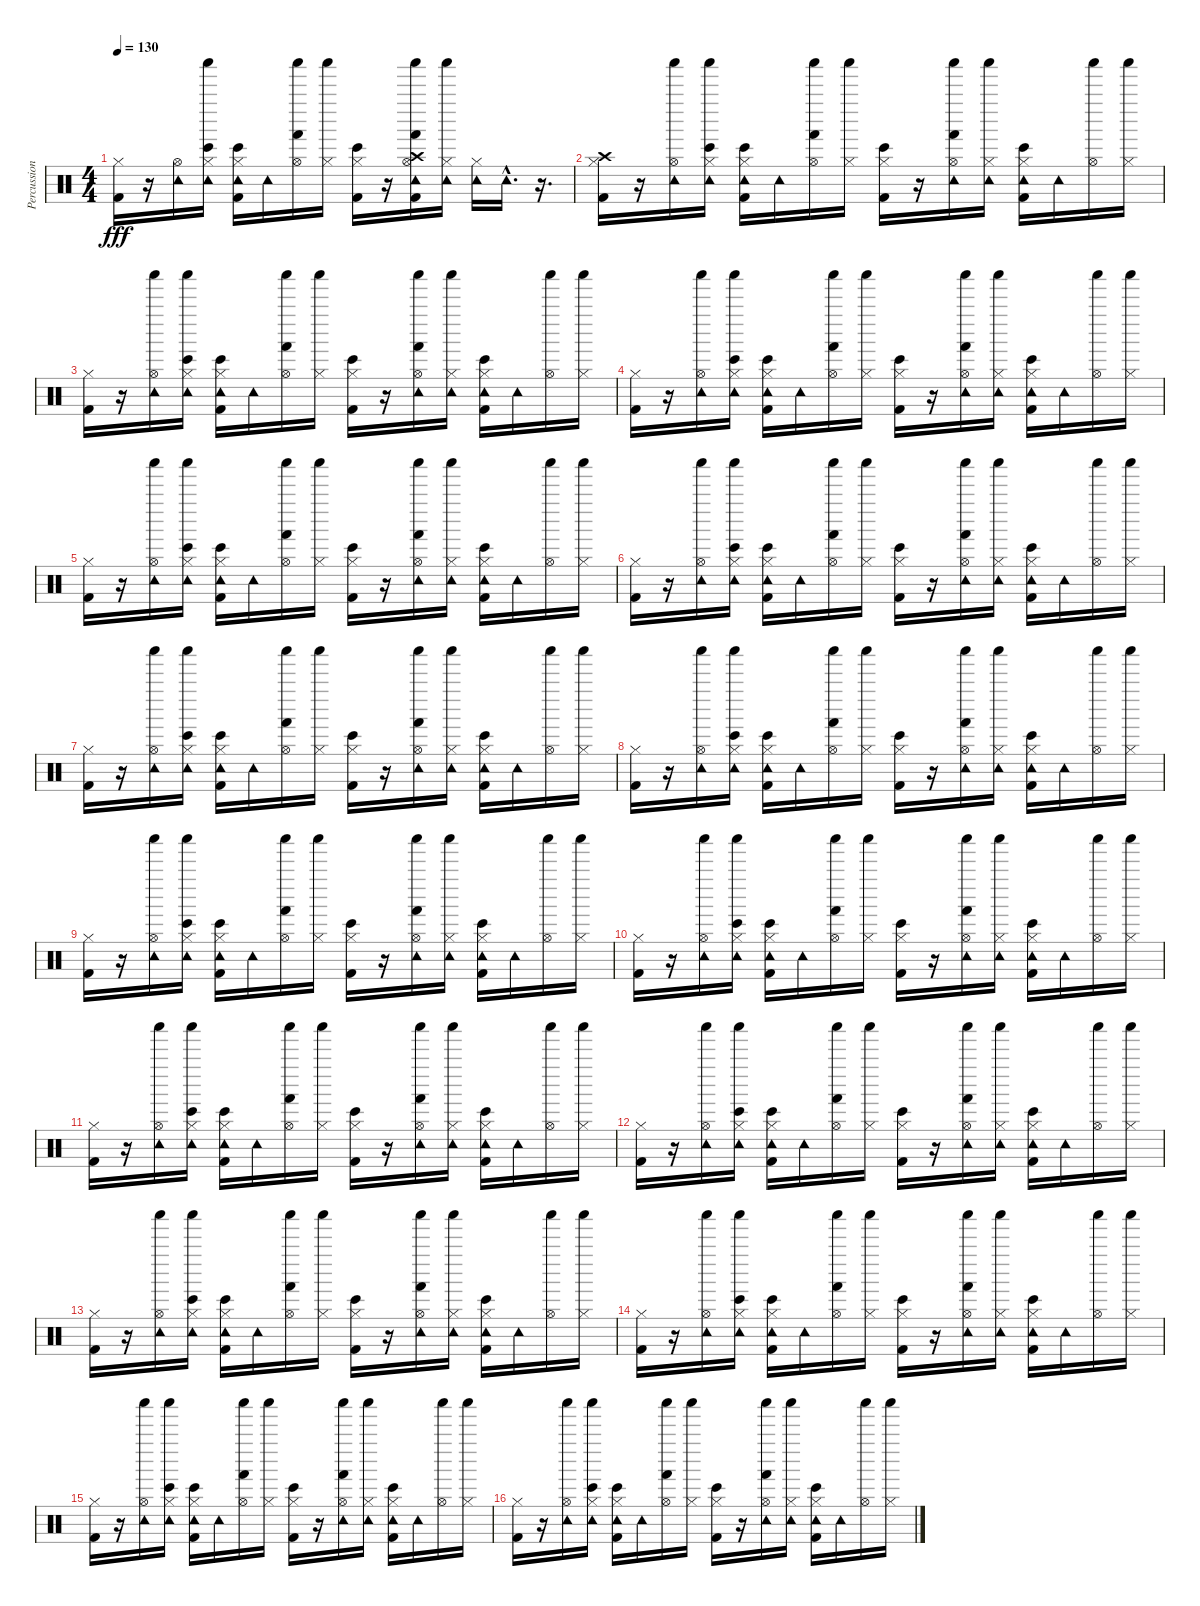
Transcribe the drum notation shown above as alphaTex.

\track ("Percussions" "Percussion") {instrument percussion}
\staff {score}
\articulation defaults
\ts (4 4)
\tempo 130
\clef neutral
\ks c
("Kick (hit) 2" "Hi-Hat (closed)").16{dy fff} r.16 ("Hi-Hat (open)" "Tambourine (hit)").16 ("Tambourine (hit)" "Shaker (hit)" "Bongo High (hit)" "Hi-Hat (closed)").16 ("Hi-Hat (closed)" "Kick (hit) 2" "Tambourine (hit)" "Bongo High (hit)").16 "Tambourine (hit)".16 ("Hi-Hat (open)" "Shaker (hit)" "Hand (hit)").16 ("Shaker (hit)" "Hi-Hat (closed)").16 ("Hi-Hat (closed)" "Kick (hit) 2" "Bongo High (hit)").16 r.16 ("Crash high (hit)" "Kick (hit) 2" "Hi-Hat (open)" "Tambourine (hit)" "Shaker (hit)" "Hand (hit)").16 ("Tambourine (hit)" "Shaker (hit)" "Hi-Hat (closed)").16 ("Hi-Hat (closed)" "Tambourine (hit)").16 "Tambourine (hit)"{hac}.16{d} r.16{d} |
("Crash high (hit)" "Kick (hit) 2" "Hi-Hat (closed)").16 r.16 ("Hi-Hat (open)" "Tambourine (hit)" "Shaker (hit)").16 ("Tambourine (hit)" "Shaker (hit)" "Bongo High (hit)" "Hi-Hat (closed)").16 ("Hi-Hat (closed)" "Kick (hit) 2" "Tambourine (hit)" "Bongo High (hit)").16 "Tambourine (hit)".16 ("Hi-Hat (open)" "Shaker (hit)" "Hand (hit)").16 ("Shaker (hit)" "Hi-Hat (closed)").16 ("Hi-Hat (closed)" "Kick (hit) 2" "Bongo High (hit)").16 r.16 ("Hi-Hat (open)" "Tambourine (hit)" "Shaker (hit)" "Hand (hit)").16 ("Tambourine (hit)" "Shaker (hit)" "Hi-Hat (closed)").16 ("Hi-Hat (closed)" "Kick (hit) 2" "Tambourine (hit)" "Bongo High (hit)").16 "Tambourine (hit)".16 ("Hi-Hat (open)" "Shaker (hit)").16 ("Shaker (hit)" "Hi-Hat (closed)").16 |
("Hi-Hat (closed)" "Kick (hit) 2").16 r.16 ("Hi-Hat (open)" "Tambourine (hit)" "Shaker (hit)").16 ("Tambourine (hit)" "Shaker (hit)" "Bongo High (hit)" "Hi-Hat (closed)").16 ("Hi-Hat (closed)" "Kick (hit) 2" "Tambourine (hit)" "Bongo High (hit)").16 "Tambourine (hit)".16 ("Hi-Hat (open)" "Shaker (hit)" "Hand (hit)").16 ("Shaker (hit)" "Hi-Hat (closed)").16 ("Hi-Hat (closed)" "Kick (hit) 2" "Bongo High (hit)").16 r.16 ("Hi-Hat (open)" "Tambourine (hit)" "Shaker (hit)" "Hand (hit)").16 ("Tambourine (hit)" "Shaker (hit)" "Hi-Hat (closed)").16 ("Hi-Hat (closed)" "Kick (hit) 2" "Tambourine (hit)" "Bongo High (hit)").16 "Tambourine (hit)".16 ("Hi-Hat (open)" "Shaker (hit)").16 ("Shaker (hit)" "Hi-Hat (closed)").16 |
("Hi-Hat (closed)" "Kick (hit) 2").16 r.16 ("Hi-Hat (open)" "Tambourine (hit)" "Shaker (hit)").16 ("Tambourine (hit)" "Shaker (hit)" "Bongo High (hit)" "Hi-Hat (closed)").16 ("Hi-Hat (closed)" "Kick (hit) 2" "Tambourine (hit)" "Bongo High (hit)").16 "Tambourine (hit)".16 ("Hi-Hat (open)" "Shaker (hit)" "Hand (hit)").16 ("Shaker (hit)" "Hi-Hat (closed)").16 ("Hi-Hat (closed)" "Kick (hit) 2" "Bongo High (hit)").16 r.16 ("Hi-Hat (open)" "Tambourine (hit)" "Shaker (hit)" "Hand (hit)").16 ("Tambourine (hit)" "Shaker (hit)" "Hi-Hat (closed)").16 ("Hi-Hat (closed)" "Kick (hit) 2" "Tambourine (hit)" "Bongo High (hit)").16 "Tambourine (hit)".16 ("Hi-Hat (open)" "Shaker (hit)").16 ("Shaker (hit)" "Hi-Hat (closed)").16 |
("Hi-Hat (closed)" "Kick (hit) 2").16 r.16 ("Hi-Hat (open)" "Tambourine (hit)" "Shaker (hit)").16 ("Tambourine (hit)" "Shaker (hit)" "Bongo High (hit)" "Hi-Hat (closed)").16 ("Hi-Hat (closed)" "Kick (hit) 2" "Tambourine (hit)" "Bongo High (hit)").16 "Tambourine (hit)".16 ("Hi-Hat (open)" "Shaker (hit)" "Hand (hit)").16 ("Shaker (hit)" "Hi-Hat (closed)").16 ("Hi-Hat (closed)" "Kick (hit) 2" "Bongo High (hit)").16 r.16 ("Hi-Hat (open)" "Tambourine (hit)" "Shaker (hit)" "Hand (hit)").16 ("Tambourine (hit)" "Shaker (hit)" "Hi-Hat (closed)").16 ("Hi-Hat (closed)" "Kick (hit) 2" "Tambourine (hit)" "Bongo High (hit)").16 "Tambourine (hit)".16 ("Hi-Hat (open)" "Shaker (hit)").16 ("Shaker (hit)" "Hi-Hat (closed)").16 |
("Hi-Hat (closed)" "Kick (hit) 2").16 r.16 ("Hi-Hat (open)" "Tambourine (hit)" "Shaker (hit)").16 ("Tambourine (hit)" "Shaker (hit)" "Bongo High (hit)" "Hi-Hat (closed)").16 ("Hi-Hat (closed)" "Kick (hit) 2" "Tambourine (hit)" "Bongo High (hit)").16 "Tambourine (hit)".16 ("Hi-Hat (open)" "Shaker (hit)" "Hand (hit)").16 ("Shaker (hit)" "Hi-Hat (closed)").16 ("Hi-Hat (closed)" "Kick (hit) 2" "Bongo High (hit)").16 r.16 ("Hi-Hat (open)" "Tambourine (hit)" "Shaker (hit)" "Hand (hit)").16 ("Tambourine (hit)" "Shaker (hit)" "Hi-Hat (closed)").16 ("Hi-Hat (closed)" "Kick (hit) 2" "Tambourine (hit)" "Bongo High (hit)").16 "Tambourine (hit)".16 ("Hi-Hat (open)" "Shaker (hit)").16 ("Shaker (hit)" "Hi-Hat (closed)").16 |
("Hi-Hat (closed)" "Kick (hit) 2").16 r.16 ("Hi-Hat (open)" "Tambourine (hit)" "Shaker (hit)").16 ("Tambourine (hit)" "Shaker (hit)" "Bongo High (hit)" "Hi-Hat (closed)").16 ("Hi-Hat (closed)" "Kick (hit) 2" "Tambourine (hit)" "Bongo High (hit)").16 "Tambourine (hit)".16 ("Hi-Hat (open)" "Shaker (hit)" "Hand (hit)").16 ("Shaker (hit)" "Hi-Hat (closed)").16 ("Hi-Hat (closed)" "Kick (hit) 2" "Bongo High (hit)").16 r.16 ("Hi-Hat (open)" "Tambourine (hit)" "Shaker (hit)" "Hand (hit)").16 ("Tambourine (hit)" "Shaker (hit)" "Hi-Hat (closed)").16 ("Hi-Hat (closed)" "Kick (hit) 2" "Tambourine (hit)" "Bongo High (hit)").16 "Tambourine (hit)".16 ("Hi-Hat (open)" "Shaker (hit)").16 ("Shaker (hit)" "Hi-Hat (closed)").16 |
("Hi-Hat (closed)" "Kick (hit) 2").16 r.16 ("Hi-Hat (open)" "Tambourine (hit)" "Shaker (hit)").16 ("Tambourine (hit)" "Shaker (hit)" "Bongo High (hit)" "Hi-Hat (closed)").16 ("Hi-Hat (closed)" "Kick (hit) 2" "Tambourine (hit)" "Bongo High (hit)").16 "Tambourine (hit)".16 ("Hi-Hat (open)" "Shaker (hit)" "Hand (hit)").16 ("Shaker (hit)" "Hi-Hat (closed)").16 ("Hi-Hat (closed)" "Kick (hit) 2" "Bongo High (hit)").16 r.16 ("Hi-Hat (open)" "Tambourine (hit)" "Shaker (hit)" "Hand (hit)").16 ("Tambourine (hit)" "Shaker (hit)" "Hi-Hat (closed)").16 ("Hi-Hat (closed)" "Kick (hit) 2" "Tambourine (hit)" "Bongo High (hit)").16 "Tambourine (hit)".16 ("Hi-Hat (open)" "Shaker (hit)").16 ("Shaker (hit)" "Hi-Hat (closed)").16 |
("Hi-Hat (closed)" "Kick (hit) 2").16 r.16 ("Hi-Hat (open)" "Tambourine (hit)" "Shaker (hit)").16 ("Tambourine (hit)" "Shaker (hit)" "Bongo High (hit)" "Hi-Hat (closed)").16 ("Hi-Hat (closed)" "Kick (hit) 2" "Tambourine (hit)" "Bongo High (hit)").16 "Tambourine (hit)".16 ("Hi-Hat (open)" "Shaker (hit)" "Hand (hit)").16 ("Shaker (hit)" "Hi-Hat (closed)").16 ("Hi-Hat (closed)" "Kick (hit) 2" "Bongo High (hit)").16 r.16 ("Hi-Hat (open)" "Tambourine (hit)" "Shaker (hit)" "Hand (hit)").16 ("Tambourine (hit)" "Shaker (hit)" "Hi-Hat (closed)").16 ("Hi-Hat (closed)" "Kick (hit) 2" "Tambourine (hit)" "Bongo High (hit)").16 "Tambourine (hit)".16 ("Hi-Hat (open)" "Shaker (hit)").16 ("Shaker (hit)" "Hi-Hat (closed)").16 |
("Hi-Hat (closed)" "Kick (hit) 2").16 r.16 ("Hi-Hat (open)" "Tambourine (hit)" "Shaker (hit)").16 ("Tambourine (hit)" "Shaker (hit)" "Bongo High (hit)" "Hi-Hat (closed)").16 ("Hi-Hat (closed)" "Kick (hit) 2" "Tambourine (hit)" "Bongo High (hit)").16 "Tambourine (hit)".16 ("Hi-Hat (open)" "Shaker (hit)" "Hand (hit)").16 ("Shaker (hit)" "Hi-Hat (closed)").16 ("Hi-Hat (closed)" "Kick (hit) 2" "Bongo High (hit)").16 r.16 ("Hi-Hat (open)" "Tambourine (hit)" "Shaker (hit)" "Hand (hit)").16 ("Tambourine (hit)" "Shaker (hit)" "Hi-Hat (closed)").16 ("Hi-Hat (closed)" "Kick (hit) 2" "Tambourine (hit)" "Bongo High (hit)").16 "Tambourine (hit)".16 ("Hi-Hat (open)" "Shaker (hit)").16 ("Shaker (hit)" "Hi-Hat (closed)").16 |
("Hi-Hat (closed)" "Kick (hit) 2").16 r.16 ("Hi-Hat (open)" "Tambourine (hit)" "Shaker (hit)").16 ("Tambourine (hit)" "Shaker (hit)" "Bongo High (hit)" "Hi-Hat (closed)").16 ("Hi-Hat (closed)" "Kick (hit) 2" "Tambourine (hit)" "Bongo High (hit)").16 "Tambourine (hit)".16 ("Hi-Hat (open)" "Shaker (hit)" "Hand (hit)").16 ("Shaker (hit)" "Hi-Hat (closed)").16 ("Hi-Hat (closed)" "Kick (hit) 2" "Bongo High (hit)").16 r.16 ("Hi-Hat (open)" "Tambourine (hit)" "Shaker (hit)" "Hand (hit)").16 ("Tambourine (hit)" "Shaker (hit)" "Hi-Hat (closed)").16 ("Hi-Hat (closed)" "Kick (hit) 2" "Tambourine (hit)" "Bongo High (hit)").16 "Tambourine (hit)".16 ("Hi-Hat (open)" "Shaker (hit)").16 ("Shaker (hit)" "Hi-Hat (closed)").16 |
("Hi-Hat (closed)" "Kick (hit) 2").16 r.16 ("Hi-Hat (open)" "Tambourine (hit)" "Shaker (hit)").16 ("Tambourine (hit)" "Shaker (hit)" "Bongo High (hit)" "Hi-Hat (closed)").16 ("Hi-Hat (closed)" "Kick (hit) 2" "Tambourine (hit)" "Bongo High (hit)").16 "Tambourine (hit)".16 ("Hi-Hat (open)" "Shaker (hit)" "Hand (hit)").16 ("Shaker (hit)" "Hi-Hat (closed)").16 ("Hi-Hat (closed)" "Kick (hit) 2" "Bongo High (hit)").16 r.16 ("Hi-Hat (open)" "Tambourine (hit)" "Shaker (hit)" "Hand (hit)").16 ("Tambourine (hit)" "Shaker (hit)" "Hi-Hat (closed)").16 ("Hi-Hat (closed)" "Kick (hit) 2" "Tambourine (hit)" "Bongo High (hit)").16 "Tambourine (hit)".16 ("Hi-Hat (open)" "Shaker (hit)").16 ("Shaker (hit)" "Hi-Hat (closed)").16 |
("Hi-Hat (closed)" "Kick (hit) 2").16 r.16 ("Hi-Hat (open)" "Tambourine (hit)" "Shaker (hit)").16 ("Tambourine (hit)" "Shaker (hit)" "Bongo High (hit)" "Hi-Hat (closed)").16 ("Hi-Hat (closed)" "Kick (hit) 2" "Tambourine (hit)" "Bongo High (hit)").16 "Tambourine (hit)".16 ("Hi-Hat (open)" "Shaker (hit)" "Hand (hit)").16 ("Shaker (hit)" "Hi-Hat (closed)").16 ("Hi-Hat (closed)" "Kick (hit) 2" "Bongo High (hit)").16 r.16 ("Hi-Hat (open)" "Tambourine (hit)" "Shaker (hit)" "Hand (hit)").16 ("Tambourine (hit)" "Shaker (hit)" "Hi-Hat (closed)").16 ("Hi-Hat (closed)" "Kick (hit) 2" "Tambourine (hit)" "Bongo High (hit)").16 "Tambourine (hit)".16 ("Hi-Hat (open)" "Shaker (hit)").16 ("Shaker (hit)" "Hi-Hat (closed)").16 |
("Hi-Hat (closed)" "Kick (hit) 2").16 r.16 ("Hi-Hat (open)" "Tambourine (hit)" "Shaker (hit)").16 ("Tambourine (hit)" "Shaker (hit)" "Bongo High (hit)" "Hi-Hat (closed)").16 ("Hi-Hat (closed)" "Kick (hit) 2" "Tambourine (hit)" "Bongo High (hit)").16 "Tambourine (hit)".16 ("Hi-Hat (open)" "Shaker (hit)" "Hand (hit)").16 ("Shaker (hit)" "Hi-Hat (closed)").16 ("Hi-Hat (closed)" "Kick (hit) 2" "Bongo High (hit)").16 r.16 ("Hi-Hat (open)" "Tambourine (hit)" "Shaker (hit)" "Hand (hit)").16 ("Tambourine (hit)" "Shaker (hit)" "Hi-Hat (closed)").16 ("Hi-Hat (closed)" "Kick (hit) 2" "Tambourine (hit)" "Bongo High (hit)").16 "Tambourine (hit)".16 ("Hi-Hat (open)" "Shaker (hit)").16 ("Shaker (hit)" "Hi-Hat (closed)").16 |
("Hi-Hat (closed)" "Kick (hit) 2").16 r.16 ("Hi-Hat (open)" "Tambourine (hit)" "Shaker (hit)").16 ("Tambourine (hit)" "Shaker (hit)" "Bongo High (hit)" "Hi-Hat (closed)").16 ("Hi-Hat (closed)" "Kick (hit) 2" "Tambourine (hit)" "Bongo High (hit)").16 "Tambourine (hit)".16 ("Hi-Hat (open)" "Shaker (hit)" "Hand (hit)").16 ("Shaker (hit)" "Hi-Hat (closed)").16 ("Hi-Hat (closed)" "Kick (hit) 2" "Bongo High (hit)").16 r.16 ("Hi-Hat (open)" "Tambourine (hit)" "Shaker (hit)" "Hand (hit)").16 ("Tambourine (hit)" "Shaker (hit)" "Hi-Hat (closed)").16 ("Hi-Hat (closed)" "Kick (hit) 2" "Tambourine (hit)" "Bongo High (hit)").16 "Tambourine (hit)".16 ("Hi-Hat (open)" "Shaker (hit)").16 ("Shaker (hit)" "Hi-Hat (closed)").16 |
("Hi-Hat (closed)" "Kick (hit) 2").16 r.16 ("Hi-Hat (open)" "Tambourine (hit)" "Shaker (hit)").16 ("Tambourine (hit)" "Shaker (hit)" "Bongo High (hit)" "Hi-Hat (closed)").16 ("Hi-Hat (closed)" "Kick (hit) 2" "Tambourine (hit)" "Bongo High (hit)").16 "Tambourine (hit)".16 ("Hi-Hat (open)" "Shaker (hit)" "Hand (hit)").16 ("Shaker (hit)" "Hi-Hat (closed)").16 ("Hi-Hat (closed)" "Kick (hit) 2" "Bongo High (hit)").16 r.16 ("Hi-Hat (open)" "Tambourine (hit)" "Shaker (hit)" "Hand (hit)").16 ("Tambourine (hit)" "Shaker (hit)" "Hi-Hat (closed)").16 ("Hi-Hat (closed)" "Kick (hit) 2" "Tambourine (hit)" "Bongo High (hit)").16 "Tambourine (hit)".16 ("Hi-Hat (open)" "Shaker (hit)").16 ("Shaker (hit)" "Hi-Hat (closed)").16
